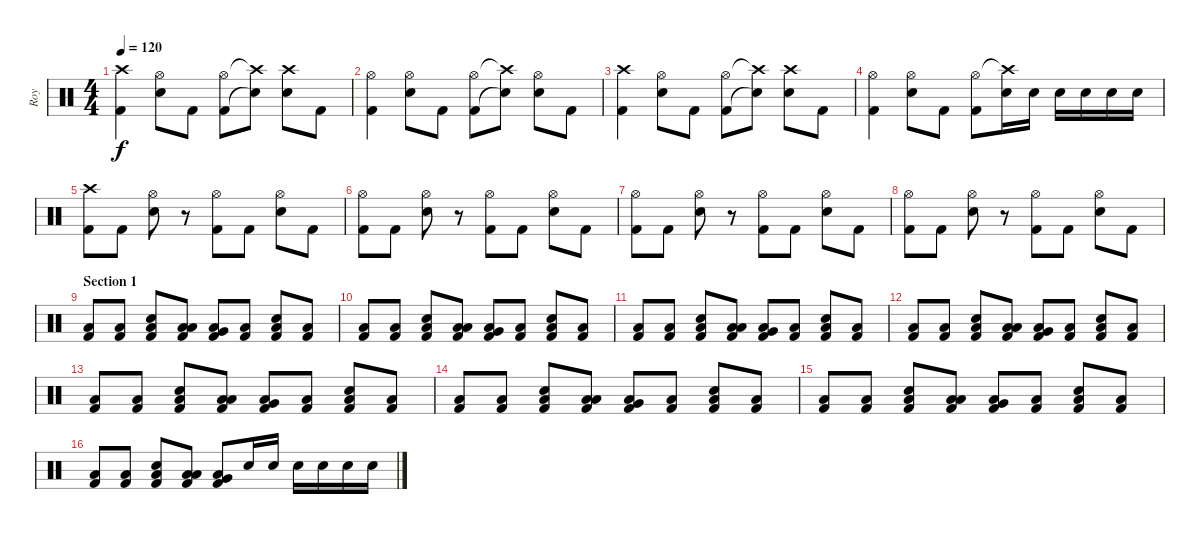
\track ("Roy" "Roy") {instrument percussion}
\staff {score}
\articulation defaults
\ts (4 4)
\tempo 120
\clef neutral
\ks c
("Crash high (hit)" "Kick (hit) 2").4{dy f} ("Hi-Hat (open)" "Electric Snare (hit)").8 "Kick (hit) 2".8 ("Hi-Hat (open)" "Kick (hit) 2").8 ("Crash high (hit)"{t} "Electric Snare (hit)"{t}).8 ("Crash high (hit)" "Electric Snare (hit)").8 "Kick (hit) 2".8 |
("Hi-Hat (open)" "Kick (hit) 2").4 ("Hi-Hat (open)" "Electric Snare (hit)").8 "Kick (hit) 2".8 ("Hi-Hat (open)" "Kick (hit) 2").8 ("Crash high (hit)"{t} "Electric Snare (hit)"{t}).8 ("Hi-Hat (open)" "Electric Snare (hit)").8 "Kick (hit) 2".8 |
("Crash high (hit)" "Kick (hit) 2").4 ("Hi-Hat (open)" "Electric Snare (hit)").8 "Kick (hit) 2".8 ("Hi-Hat (open)" "Kick (hit) 2").8 ("Crash high (hit)"{t} "Electric Snare (hit)"{t}).8 ("Crash high (hit)" "Electric Snare (hit)").8 "Kick (hit) 2".8 |
("Hi-Hat (open)" "Kick (hit) 2").4 ("Hi-Hat (open)" "Electric Snare (hit)").8 "Kick (hit) 2".8 ("Hi-Hat (open)" "Kick (hit) 2").8 ("Crash high (hit)"{t} "Electric Snare (hit)").16 "Electric Snare (hit)".16 "Electric Snare (hit)".16 "Electric Snare (hit)".16 "Electric Snare (hit)".16 "Electric Snare (hit)".16 |
("Crash high (hit)" "Kick (hit) 2").8 "Kick (hit) 2".8 ("Hi-Hat (open)" "Electric Snare (hit)").8 r.8 ("Hi-Hat (open)" "Kick (hit) 2").8 "Kick (hit) 2".8 ("Hi-Hat (open)" "Electric Snare (hit)").8 "Kick (hit) 2".8 |
("Hi-Hat (open)" "Kick (hit) 2").8 "Kick (hit) 2".8 ("Hi-Hat (open)" "Electric Snare (hit)").8 r.8 ("Hi-Hat (open)" "Kick (hit) 2").8 "Kick (hit) 2".8 ("Hi-Hat (open)" "Electric Snare (hit)").8 "Kick (hit) 2".8 |
("Hi-Hat (open)" "Kick (hit) 2").8 "Kick (hit) 2".8 ("Hi-Hat (open)" "Electric Snare (hit)").8 r.8 ("Hi-Hat (open)" "Kick (hit) 2").8 "Kick (hit) 2".8 ("Hi-Hat (open)" "Electric Snare (hit)").8 "Kick (hit) 2".8 |
("Hi-Hat (open)" "Kick (hit) 2").8 "Kick (hit) 2".8 ("Hi-Hat (open)" "Electric Snare (hit)").8 r.8 ("Hi-Hat (open)" "Kick (hit) 2").8 "Kick (hit) 2".8 ("Hi-Hat (open)" "Electric Snare (hit)").8 "Kick (hit) 2".8 |
\section ("" "Section 1")
("Low Floor Tom (hit)" "Kick (hit) 2").8 ("Low Floor Tom (hit)" "Kick (hit) 2").8 ("Electric Snare (hit)" "Low Floor Tom (hit)" "Kick (hit) 2").8 ("Low Tom (hit)" "Low Floor Tom (hit)" "Kick (hit) 2").8 ("Very Low Tom (hit)" "Low Floor Tom (hit)" "Kick (hit) 2").8 ("Low Floor Tom (hit)" "Kick (hit) 2").8 ("Electric Snare (hit)" "Low Floor Tom (hit)" "Kick (hit) 2").8 ("Low Floor Tom (hit)" "Kick (hit) 2").8 |
("Low Floor Tom (hit)" "Kick (hit) 2").8 ("Low Floor Tom (hit)" "Kick (hit) 2").8 ("Electric Snare (hit)" "Low Floor Tom (hit)" "Kick (hit) 2").8 ("Low Tom (hit)" "Low Floor Tom (hit)" "Kick (hit) 2").8 ("Very Low Tom (hit)" "Low Floor Tom (hit)" "Kick (hit) 2").8 ("Low Floor Tom (hit)" "Kick (hit) 2").8 ("Electric Snare (hit)" "Low Floor Tom (hit)" "Kick (hit) 2").8 ("Low Floor Tom (hit)" "Kick (hit) 2").8 |
("Low Floor Tom (hit)" "Kick (hit) 2").8 ("Low Floor Tom (hit)" "Kick (hit) 2").8 ("Electric Snare (hit)" "Low Floor Tom (hit)" "Kick (hit) 2").8 ("Low Tom (hit)" "Low Floor Tom (hit)" "Kick (hit) 2").8 ("Very Low Tom (hit)" "Low Floor Tom (hit)" "Kick (hit) 2").8 ("Low Floor Tom (hit)" "Kick (hit) 2").8 ("Electric Snare (hit)" "Low Floor Tom (hit)" "Kick (hit) 2").8 ("Low Floor Tom (hit)" "Kick (hit) 2").8 |
("Low Floor Tom (hit)" "Kick (hit) 2").8 ("Low Floor Tom (hit)" "Kick (hit) 2").8 ("Electric Snare (hit)" "Low Floor Tom (hit)" "Kick (hit) 2").8 ("Low Tom (hit)" "Low Floor Tom (hit)" "Kick (hit) 2").8 ("Very Low Tom (hit)" "Low Floor Tom (hit)" "Kick (hit) 2").8 ("Low Floor Tom (hit)" "Kick (hit) 2").8 ("Electric Snare (hit)" "Low Floor Tom (hit)" "Kick (hit) 2").8 ("Low Floor Tom (hit)" "Kick (hit) 2").8 |
("Low Floor Tom (hit)" "Kick (hit) 2").8 ("Low Floor Tom (hit)" "Kick (hit) 2").8 ("Electric Snare (hit)" "Low Floor Tom (hit)" "Kick (hit) 2").8 ("Low Tom (hit)" "Low Floor Tom (hit)" "Kick (hit) 2").8 ("Very Low Tom (hit)" "Low Floor Tom (hit)" "Kick (hit) 2").8 ("Low Floor Tom (hit)" "Kick (hit) 2").8 ("Electric Snare (hit)" "Low Floor Tom (hit)" "Kick (hit) 2").8 ("Low Floor Tom (hit)" "Kick (hit) 2").8 |
("Low Floor Tom (hit)" "Kick (hit) 2").8 ("Low Floor Tom (hit)" "Kick (hit) 2").8 ("Electric Snare (hit)" "Low Floor Tom (hit)" "Kick (hit) 2").8 ("Low Tom (hit)" "Low Floor Tom (hit)" "Kick (hit) 2").8 ("Very Low Tom (hit)" "Low Floor Tom (hit)" "Kick (hit) 2").8 ("Low Floor Tom (hit)" "Kick (hit) 2").8 ("Electric Snare (hit)" "Low Floor Tom (hit)" "Kick (hit) 2").8 ("Low Floor Tom (hit)" "Kick (hit) 2").8 |
("Low Floor Tom (hit)" "Kick (hit) 2").8 ("Low Floor Tom (hit)" "Kick (hit) 2").8 ("Electric Snare (hit)" "Low Floor Tom (hit)" "Kick (hit) 2").8 ("Low Tom (hit)" "Low Floor Tom (hit)" "Kick (hit) 2").8 ("Very Low Tom (hit)" "Low Floor Tom (hit)" "Kick (hit) 2").8 ("Low Floor Tom (hit)" "Kick (hit) 2").8 ("Electric Snare (hit)" "Low Floor Tom (hit)" "Kick (hit) 2").8 ("Low Floor Tom (hit)" "Kick (hit) 2").8 |
("Low Floor Tom (hit)" "Kick (hit) 2").8 ("Low Floor Tom (hit)" "Kick (hit) 2").8 ("Electric Snare (hit)" "Low Floor Tom (hit)" "Kick (hit) 2").8 ("Low Tom (hit)" "Low Floor Tom (hit)" "Kick (hit) 2").8 ("Very Low Tom (hit)" "Low Floor Tom (hit)" "Kick (hit) 2").8 "Electric Snare (hit)".16 "Electric Snare (hit)".16 "Electric Snare (hit)".16 "Electric Snare (hit)".16 "Electric Snare (hit)".16 "Electric Snare (hit)".16
